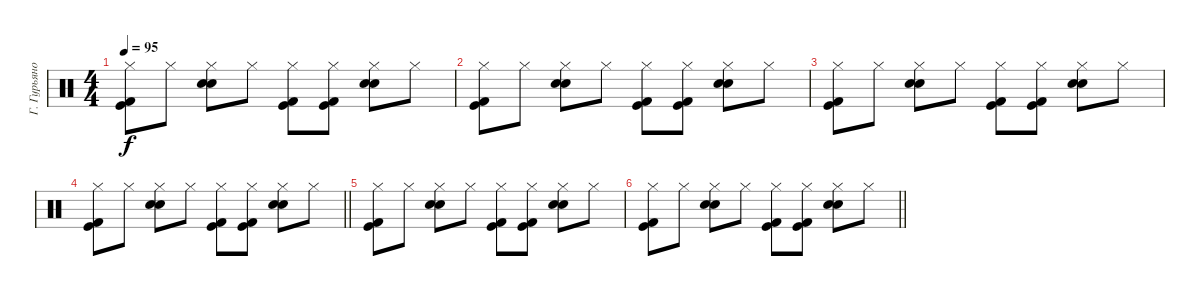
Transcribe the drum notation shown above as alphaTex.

\track ("Г. Гурьянов" "Г. Гурьяно") {instrument percussion}
\staff {score}
\articulation defaults
\ts (4 4)
\tempo 95
\clef neutral
\ks c
("Kick (hit) 2" "Kick (hit)" "Hi-Hat (closed)").8{dy f} "Hi-Hat (closed)".8 ("Electric Snare (hit)" "Snare (hit) 2" "Hi-Hat (closed)").8 "Hi-Hat (closed)".8 ("Kick (hit) 2" "Kick (hit)" "Hi-Hat (closed)").8 ("Kick (hit) 2" "Kick (hit)" "Hi-Hat (closed)").8 ("Electric Snare (hit)" "Snare (hit) 2" "Hi-Hat (closed)").8 "Hi-Hat (closed)".8 |
("Kick (hit) 2" "Kick (hit)" "Hi-Hat (closed)").8 "Hi-Hat (closed)".8 ("Electric Snare (hit)" "Snare (hit) 2" "Hi-Hat (closed)").8 "Hi-Hat (closed)".8 ("Kick (hit) 2" "Kick (hit)" "Hi-Hat (closed)").8 ("Kick (hit) 2" "Kick (hit)" "Hi-Hat (closed)").8 ("Electric Snare (hit)" "Snare (hit) 2" "Hi-Hat (closed)").8 "Hi-Hat (closed)".8 |
("Kick (hit) 2" "Kick (hit)" "Hi-Hat (closed)").8 "Hi-Hat (closed)".8 ("Electric Snare (hit)" "Snare (hit) 2" "Hi-Hat (closed)").8 "Hi-Hat (closed)".8 ("Kick (hit) 2" "Kick (hit)" "Hi-Hat (closed)").8 ("Kick (hit) 2" "Kick (hit)" "Hi-Hat (closed)").8 ("Electric Snare (hit)" "Snare (hit) 2" "Hi-Hat (closed)").8 "Hi-Hat (closed)".8 |
\barLineRight lightlight
("Kick (hit) 2" "Kick (hit)" "Hi-Hat (closed)").8 "Hi-Hat (closed)".8 ("Electric Snare (hit)" "Snare (hit) 2" "Hi-Hat (closed)").8 "Hi-Hat (closed)".8 ("Kick (hit) 2" "Kick (hit)" "Hi-Hat (closed)").8 ("Kick (hit) 2" "Kick (hit)" "Hi-Hat (closed)").8 ("Electric Snare (hit)" "Snare (hit) 2" "Hi-Hat (closed)").8 "Hi-Hat (closed)".8 |
("Kick (hit) 2" "Kick (hit)" "Hi-Hat (closed)").8 "Hi-Hat (closed)".8 ("Electric Snare (hit)" "Snare (hit) 2" "Hi-Hat (closed)").8 "Hi-Hat (closed)".8 ("Kick (hit) 2" "Kick (hit)" "Hi-Hat (closed)").8 ("Kick (hit) 2" "Kick (hit)" "Hi-Hat (closed)").8 ("Electric Snare (hit)" "Snare (hit) 2" "Hi-Hat (closed)").8 "Hi-Hat (closed)".8 |
\barLineRight lightlight
("Kick (hit) 2" "Kick (hit)" "Hi-Hat (closed)").8 "Hi-Hat (closed)".8 ("Electric Snare (hit)" "Snare (hit) 2" "Hi-Hat (closed)").8 "Hi-Hat (closed)".8 ("Kick (hit) 2" "Kick (hit)" "Hi-Hat (closed)").8 ("Kick (hit) 2" "Kick (hit)" "Hi-Hat (closed)").8 ("Electric Snare (hit)" "Snare (hit) 2" "Hi-Hat (closed)").8 "Hi-Hat (closed)".8
